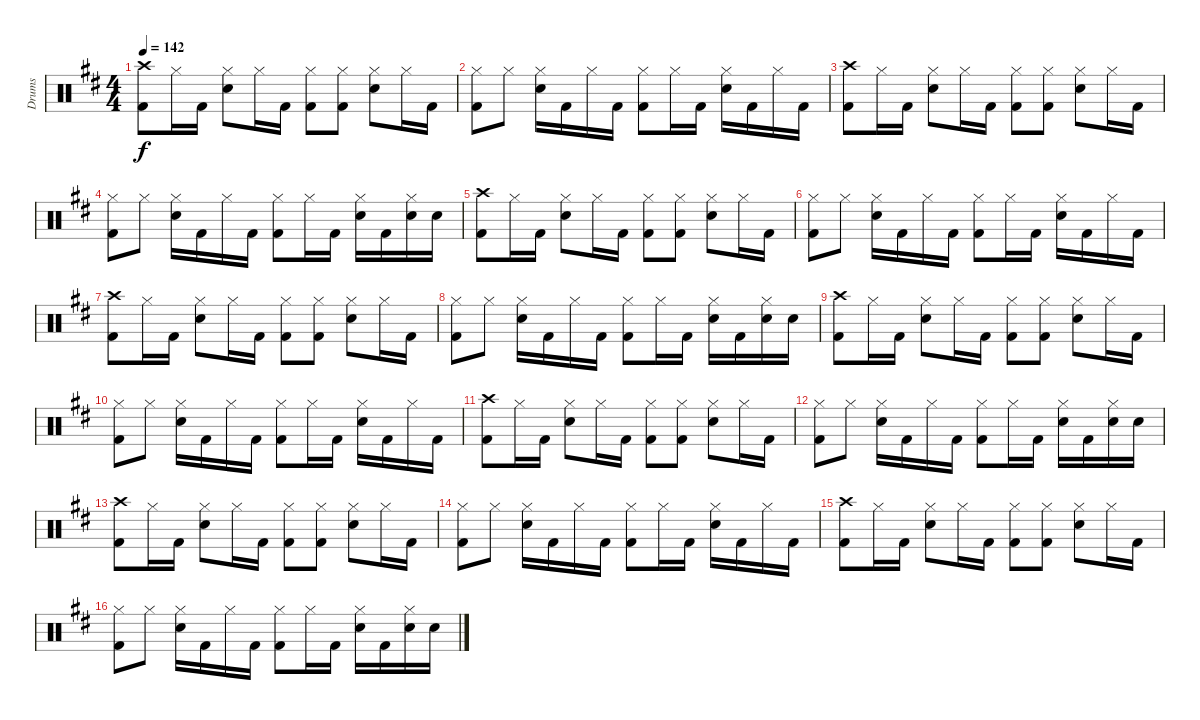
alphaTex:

\track ("Drums" "Drums") {instrument percussion}
\staff {score}
\articulation defaults
\ts (4 4)
\tempo 142
\clef neutral
\ks bminor
("Crash high (hit)" "Kick (hit) 2").8{dy f} "Hi-Hat (closed)".16 "Kick (hit) 2".16 ("Hi-Hat (closed)" "Electric Snare (hit)").8 "Hi-Hat (closed)".16 "Kick (hit) 2".16 ("Hi-Hat (closed)" "Kick (hit) 2").8 ("Hi-Hat (closed)" "Kick (hit) 2").8 ("Hi-Hat (closed)" "Electric Snare (hit)").8 "Hi-Hat (closed)".16 "Kick (hit) 2".16 |
("Hi-Hat (closed)" "Kick (hit) 2").8 "Hi-Hat (closed)".8 ("Hi-Hat (closed)" "Electric Snare (hit)").16 "Kick (hit) 2".16 "Hi-Hat (closed)".16 "Kick (hit) 2".16 ("Hi-Hat (closed)" "Kick (hit) 2").8 "Hi-Hat (closed)".16 "Kick (hit) 2".16 ("Hi-Hat (closed)" "Electric Snare (hit)").16 "Kick (hit) 2".16 "Hi-Hat (closed)".16 "Kick (hit) 2".16 |
("Crash high (hit)" "Kick (hit) 2").8 "Hi-Hat (closed)".16 "Kick (hit) 2".16 ("Hi-Hat (closed)" "Electric Snare (hit)").8 "Hi-Hat (closed)".16 "Kick (hit) 2".16 ("Hi-Hat (closed)" "Kick (hit) 2").8 ("Hi-Hat (closed)" "Kick (hit) 2").8 ("Hi-Hat (closed)" "Electric Snare (hit)").8 "Hi-Hat (closed)".16 "Kick (hit) 2".16 |
("Hi-Hat (closed)" "Kick (hit) 2").8 "Hi-Hat (closed)".8 ("Hi-Hat (closed)" "Electric Snare (hit)").16 "Kick (hit) 2".16 "Hi-Hat (closed)".16 "Kick (hit) 2".16 ("Hi-Hat (closed)" "Kick (hit) 2").8 "Hi-Hat (closed)".16 "Kick (hit) 2".16 ("Hi-Hat (closed)" "Electric Snare (hit)").16 "Kick (hit) 2".16 ("Hi-Hat (closed)" "Electric Snare (hit)").16 "Electric Snare (hit)".16 |
("Crash high (hit)" "Kick (hit) 2").8 "Hi-Hat (closed)".16 "Kick (hit) 2".16 ("Hi-Hat (closed)" "Electric Snare (hit)").8 "Hi-Hat (closed)".16 "Kick (hit) 2".16 ("Hi-Hat (closed)" "Kick (hit) 2").8 ("Hi-Hat (closed)" "Kick (hit) 2").8 ("Hi-Hat (closed)" "Electric Snare (hit)").8 "Hi-Hat (closed)".16 "Kick (hit) 2".16 |
("Hi-Hat (closed)" "Kick (hit) 2").8 "Hi-Hat (closed)".8 ("Hi-Hat (closed)" "Electric Snare (hit)").16 "Kick (hit) 2".16 "Hi-Hat (closed)".16 "Kick (hit) 2".16 ("Hi-Hat (closed)" "Kick (hit) 2").8 "Hi-Hat (closed)".16 "Kick (hit) 2".16 ("Hi-Hat (closed)" "Electric Snare (hit)").16 "Kick (hit) 2".16 "Hi-Hat (closed)".16 "Kick (hit) 2".16 |
("Crash high (hit)" "Kick (hit) 2").8 "Hi-Hat (closed)".16 "Kick (hit) 2".16 ("Hi-Hat (closed)" "Electric Snare (hit)").8 "Hi-Hat (closed)".16 "Kick (hit) 2".16 ("Hi-Hat (closed)" "Kick (hit) 2").8 ("Hi-Hat (closed)" "Kick (hit) 2").8 ("Hi-Hat (closed)" "Electric Snare (hit)").8 "Hi-Hat (closed)".16 "Kick (hit) 2".16 |
("Hi-Hat (closed)" "Kick (hit) 2").8 "Hi-Hat (closed)".8 ("Hi-Hat (closed)" "Electric Snare (hit)").16 "Kick (hit) 2".16 "Hi-Hat (closed)".16 "Kick (hit) 2".16 ("Hi-Hat (closed)" "Kick (hit) 2").8 "Hi-Hat (closed)".16 "Kick (hit) 2".16 ("Hi-Hat (closed)" "Electric Snare (hit)").16 "Kick (hit) 2".16 ("Hi-Hat (closed)" "Electric Snare (hit)").16 "Electric Snare (hit)".16 |
("Crash high (hit)" "Kick (hit) 2").8 "Hi-Hat (closed)".16 "Kick (hit) 2".16 ("Hi-Hat (closed)" "Electric Snare (hit)").8 "Hi-Hat (closed)".16 "Kick (hit) 2".16 ("Hi-Hat (closed)" "Kick (hit) 2").8 ("Hi-Hat (closed)" "Kick (hit) 2").8 ("Hi-Hat (closed)" "Electric Snare (hit)").8 "Hi-Hat (closed)".16 "Kick (hit) 2".16 |
("Hi-Hat (closed)" "Kick (hit) 2").8 "Hi-Hat (closed)".8 ("Hi-Hat (closed)" "Electric Snare (hit)").16 "Kick (hit) 2".16 "Hi-Hat (closed)".16 "Kick (hit) 2".16 ("Hi-Hat (closed)" "Kick (hit) 2").8 "Hi-Hat (closed)".16 "Kick (hit) 2".16 ("Hi-Hat (closed)" "Electric Snare (hit)").16 "Kick (hit) 2".16 "Hi-Hat (closed)".16 "Kick (hit) 2".16 |
("Crash high (hit)" "Kick (hit) 2").8 "Hi-Hat (closed)".16 "Kick (hit) 2".16 ("Hi-Hat (closed)" "Electric Snare (hit)").8 "Hi-Hat (closed)".16 "Kick (hit) 2".16 ("Hi-Hat (closed)" "Kick (hit) 2").8 ("Hi-Hat (closed)" "Kick (hit) 2").8 ("Hi-Hat (closed)" "Electric Snare (hit)").8 "Hi-Hat (closed)".16 "Kick (hit) 2".16 |
("Hi-Hat (closed)" "Kick (hit) 2").8 "Hi-Hat (closed)".8 ("Hi-Hat (closed)" "Electric Snare (hit)").16 "Kick (hit) 2".16 "Hi-Hat (closed)".16 "Kick (hit) 2".16 ("Hi-Hat (closed)" "Kick (hit) 2").8 "Hi-Hat (closed)".16 "Kick (hit) 2".16 ("Hi-Hat (closed)" "Electric Snare (hit)").16 "Kick (hit) 2".16 ("Hi-Hat (closed)" "Electric Snare (hit)").16 "Electric Snare (hit)".16 |
("Crash high (hit)" "Kick (hit) 2").8 "Hi-Hat (closed)".16 "Kick (hit) 2".16 ("Hi-Hat (closed)" "Electric Snare (hit)").8 "Hi-Hat (closed)".16 "Kick (hit) 2".16 ("Hi-Hat (closed)" "Kick (hit) 2").8 ("Hi-Hat (closed)" "Kick (hit) 2").8 ("Hi-Hat (closed)" "Electric Snare (hit)").8 "Hi-Hat (closed)".16 "Kick (hit) 2".16 |
("Hi-Hat (closed)" "Kick (hit) 2").8 "Hi-Hat (closed)".8 ("Hi-Hat (closed)" "Electric Snare (hit)").16 "Kick (hit) 2".16 "Hi-Hat (closed)".16 "Kick (hit) 2".16 ("Hi-Hat (closed)" "Kick (hit) 2").8 "Hi-Hat (closed)".16 "Kick (hit) 2".16 ("Hi-Hat (closed)" "Electric Snare (hit)").16 "Kick (hit) 2".16 "Hi-Hat (closed)".16 "Kick (hit) 2".16 |
("Crash high (hit)" "Kick (hit) 2").8 "Hi-Hat (closed)".16 "Kick (hit) 2".16 ("Hi-Hat (closed)" "Electric Snare (hit)").8 "Hi-Hat (closed)".16 "Kick (hit) 2".16 ("Hi-Hat (closed)" "Kick (hit) 2").8 ("Hi-Hat (closed)" "Kick (hit) 2").8 ("Hi-Hat (closed)" "Electric Snare (hit)").8 "Hi-Hat (closed)".16 "Kick (hit) 2".16 |
("Hi-Hat (closed)" "Kick (hit) 2").8 "Hi-Hat (closed)".8 ("Hi-Hat (closed)" "Electric Snare (hit)").16 "Kick (hit) 2".16 "Hi-Hat (closed)".16 "Kick (hit) 2".16 ("Hi-Hat (closed)" "Kick (hit) 2").8 "Hi-Hat (closed)".16 "Kick (hit) 2".16 ("Hi-Hat (closed)" "Electric Snare (hit)").16 "Kick (hit) 2".16 ("Hi-Hat (closed)" "Electric Snare (hit)").16 "Electric Snare (hit)".16
